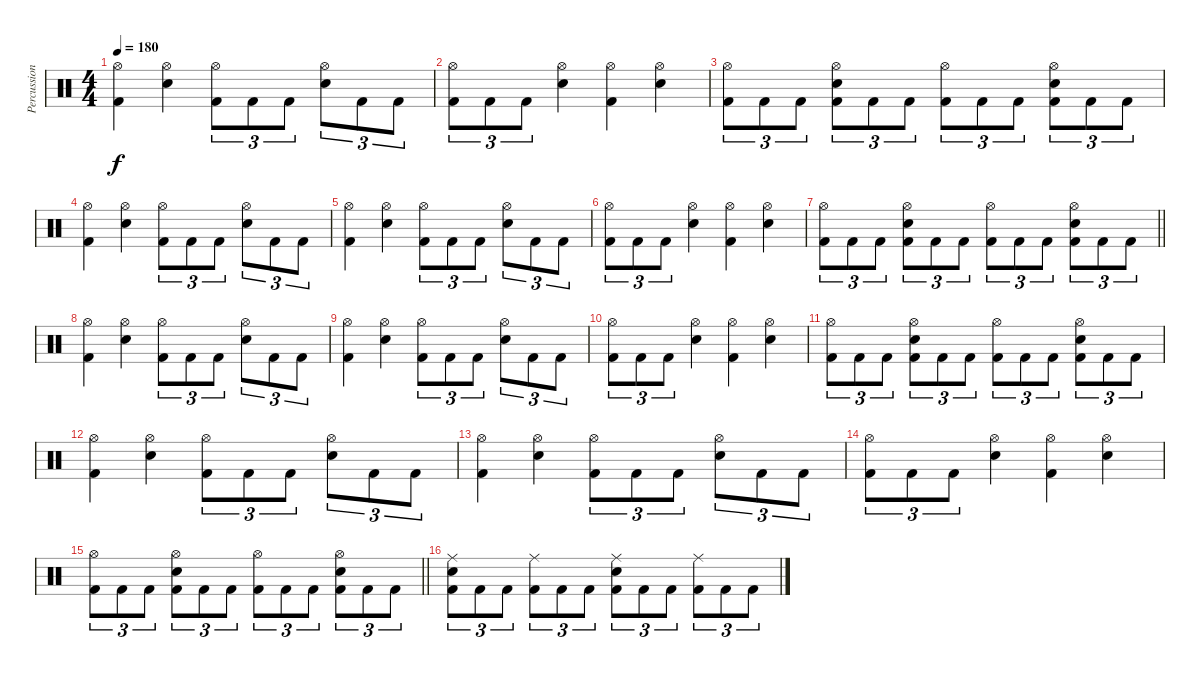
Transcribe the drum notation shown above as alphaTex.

\track ("Percussion" "Percussion") {instrument percussion}
\staff {score}
\articulation defaults
\ts (4 4)
\tempo 180
\clef neutral
\ks c
("Hi-Hat (open)" "Kick (hit) 2").4{dy f} ("Hi-Hat (open)" "Snare (hit) 2").4 ("Hi-Hat (open)" "Kick (hit) 2").8{tu (3 2)} "Kick (hit) 2".8{tu (3 2)} "Kick (hit) 2".8{tu (3 2)} ("Hi-Hat (open)" "Snare (hit) 2").8{tu (3 2)} "Kick (hit) 2".8{tu (3 2)} "Kick (hit) 2".8{tu (3 2)} |
("Hi-Hat (open)" "Kick (hit) 2").8{tu (3 2)} "Kick (hit) 2".8{tu (3 2)} "Kick (hit) 2".8{tu (3 2)} ("Hi-Hat (open)" "Snare (hit) 2").4 ("Hi-Hat (open)" "Kick (hit) 2").4 ("Hi-Hat (open)" "Snare (hit) 2").4 |
("Hi-Hat (open)" "Kick (hit) 2").8{tu (3 2)} "Kick (hit) 2".8{tu (3 2)} "Kick (hit) 2".8{tu (3 2)} ("Hi-Hat (open)" "Snare (hit) 2" "Kick (hit) 2").8{tu (3 2)} "Kick (hit) 2".8{tu (3 2)} "Kick (hit) 2".8{tu (3 2)} ("Hi-Hat (open)" "Kick (hit) 2").8{tu (3 2)} "Kick (hit) 2".8{tu (3 2)} "Kick (hit) 2".8{tu (3 2)} ("Hi-Hat (open)" "Snare (hit) 2" "Kick (hit) 2").8{tu (3 2)} "Kick (hit) 2".8{tu (3 2)} "Kick (hit) 2".8{tu (3 2)} |
("Hi-Hat (open)" "Kick (hit) 2").4 ("Hi-Hat (open)" "Snare (hit) 2").4 ("Hi-Hat (open)" "Kick (hit) 2").8{tu (3 2)} "Kick (hit) 2".8{tu (3 2)} "Kick (hit) 2".8{tu (3 2)} ("Hi-Hat (open)" "Snare (hit) 2").8{tu (3 2)} "Kick (hit) 2".8{tu (3 2)} "Kick (hit) 2".8{tu (3 2)} |
("Hi-Hat (open)" "Kick (hit) 2").4 ("Hi-Hat (open)" "Snare (hit) 2").4 ("Hi-Hat (open)" "Kick (hit) 2").8{tu (3 2)} "Kick (hit) 2".8{tu (3 2)} "Kick (hit) 2".8{tu (3 2)} ("Hi-Hat (open)" "Snare (hit) 2").8{tu (3 2)} "Kick (hit) 2".8{tu (3 2)} "Kick (hit) 2".8{tu (3 2)} |
("Hi-Hat (open)" "Kick (hit) 2").8{tu (3 2)} "Kick (hit) 2".8{tu (3 2)} "Kick (hit) 2".8{tu (3 2)} ("Hi-Hat (open)" "Snare (hit) 2").4 ("Hi-Hat (open)" "Kick (hit) 2").4 ("Hi-Hat (open)" "Snare (hit) 2").4 |
\barLineRight lightlight
("Hi-Hat (open)" "Kick (hit) 2").8{tu (3 2)} "Kick (hit) 2".8{tu (3 2)} "Kick (hit) 2".8{tu (3 2)} ("Hi-Hat (open)" "Snare (hit) 2" "Kick (hit) 2").8{tu (3 2)} "Kick (hit) 2".8{tu (3 2)} "Kick (hit) 2".8{tu (3 2)} ("Hi-Hat (open)" "Kick (hit) 2").8{tu (3 2)} "Kick (hit) 2".8{tu (3 2)} "Kick (hit) 2".8{tu (3 2)} ("Hi-Hat (open)" "Snare (hit) 2" "Kick (hit) 2").8{tu (3 2)} "Kick (hit) 2".8{tu (3 2)} "Kick (hit) 2".8{tu (3 2)} |
("Hi-Hat (open)" "Kick (hit) 2").4 ("Hi-Hat (open)" "Snare (hit) 2").4 ("Hi-Hat (open)" "Kick (hit) 2").8{tu (3 2)} "Kick (hit) 2".8{tu (3 2)} "Kick (hit) 2".8{tu (3 2)} ("Hi-Hat (open)" "Snare (hit) 2").8{tu (3 2)} "Kick (hit) 2".8{tu (3 2)} "Kick (hit) 2".8{tu (3 2)} |
("Hi-Hat (open)" "Kick (hit) 2").4 ("Hi-Hat (open)" "Snare (hit) 2").4 ("Hi-Hat (open)" "Kick (hit) 2").8{tu (3 2)} "Kick (hit) 2".8{tu (3 2)} "Kick (hit) 2".8{tu (3 2)} ("Hi-Hat (open)" "Snare (hit) 2").8{tu (3 2)} "Kick (hit) 2".8{tu (3 2)} "Kick (hit) 2".8{tu (3 2)} |
("Hi-Hat (open)" "Kick (hit) 2").8{tu (3 2)} "Kick (hit) 2".8{tu (3 2)} "Kick (hit) 2".8{tu (3 2)} ("Hi-Hat (open)" "Snare (hit) 2").4 ("Hi-Hat (open)" "Kick (hit) 2").4 ("Hi-Hat (open)" "Snare (hit) 2").4 |
("Hi-Hat (open)" "Kick (hit) 2").8{tu (3 2)} "Kick (hit) 2".8{tu (3 2)} "Kick (hit) 2".8{tu (3 2)} ("Hi-Hat (open)" "Snare (hit) 2" "Kick (hit) 2").8{tu (3 2)} "Kick (hit) 2".8{tu (3 2)} "Kick (hit) 2".8{tu (3 2)} ("Hi-Hat (open)" "Kick (hit) 2").8{tu (3 2)} "Kick (hit) 2".8{tu (3 2)} "Kick (hit) 2".8{tu (3 2)} ("Hi-Hat (open)" "Snare (hit) 2" "Kick (hit) 2").8{tu (3 2)} "Kick (hit) 2".8{tu (3 2)} "Kick (hit) 2".8{tu (3 2)} |
("Hi-Hat (open)" "Kick (hit) 2").4 ("Hi-Hat (open)" "Snare (hit) 2").4 ("Hi-Hat (open)" "Kick (hit) 2").8{tu (3 2)} "Kick (hit) 2".8{tu (3 2)} "Kick (hit) 2".8{tu (3 2)} ("Hi-Hat (open)" "Snare (hit) 2").8{tu (3 2)} "Kick (hit) 2".8{tu (3 2)} "Kick (hit) 2".8{tu (3 2)} |
("Hi-Hat (open)" "Kick (hit) 2").4 ("Hi-Hat (open)" "Snare (hit) 2").4 ("Hi-Hat (open)" "Kick (hit) 2").8{tu (3 2)} "Kick (hit) 2".8{tu (3 2)} "Kick (hit) 2".8{tu (3 2)} ("Hi-Hat (open)" "Snare (hit) 2").8{tu (3 2)} "Kick (hit) 2".8{tu (3 2)} "Kick (hit) 2".8{tu (3 2)} |
("Hi-Hat (open)" "Kick (hit) 2").8{tu (3 2)} "Kick (hit) 2".8{tu (3 2)} "Kick (hit) 2".8{tu (3 2)} ("Hi-Hat (open)" "Snare (hit) 2").4 ("Hi-Hat (open)" "Kick (hit) 2").4 ("Hi-Hat (open)" "Snare (hit) 2").4 |
\barLineRight lightlight
("Hi-Hat (open)" "Kick (hit) 2").8{tu (3 2)} "Kick (hit) 2".8{tu (3 2)} "Kick (hit) 2".8{tu (3 2)} ("Hi-Hat (open)" "Snare (hit) 2" "Kick (hit) 2").8{tu (3 2)} "Kick (hit) 2".8{tu (3 2)} "Kick (hit) 2".8{tu (3 2)} ("Hi-Hat (open)" "Kick (hit) 2").8{tu (3 2)} "Kick (hit) 2".8{tu (3 2)} "Kick (hit) 2".8{tu (3 2)} ("Hi-Hat (open)" "Snare (hit) 2" "Kick (hit) 2").8{tu (3 2)} "Kick (hit) 2".8{tu (3 2)} "Kick (hit) 2".8{tu (3 2)} |
("Ride (middle)" "Snare (hit) 2" "Kick (hit) 2").8{tu (3 2)} "Kick (hit) 2".8{tu (3 2)} "Kick (hit) 2".8{tu (3 2)} ("Ride (middle)" "Kick (hit) 2").8{tu (3 2)} "Kick (hit) 2".8{tu (3 2)} "Kick (hit) 2".8{tu (3 2)} ("Ride (middle)" "Snare (hit) 2" "Kick (hit) 2").8{tu (3 2)} "Kick (hit) 2".8{tu (3 2)} "Kick (hit) 2".8{tu (3 2)} ("Ride (middle)" "Kick (hit) 2").8{tu (3 2)} "Kick (hit) 2".8{tu (3 2)} "Kick (hit) 2".8{tu (3 2)}
